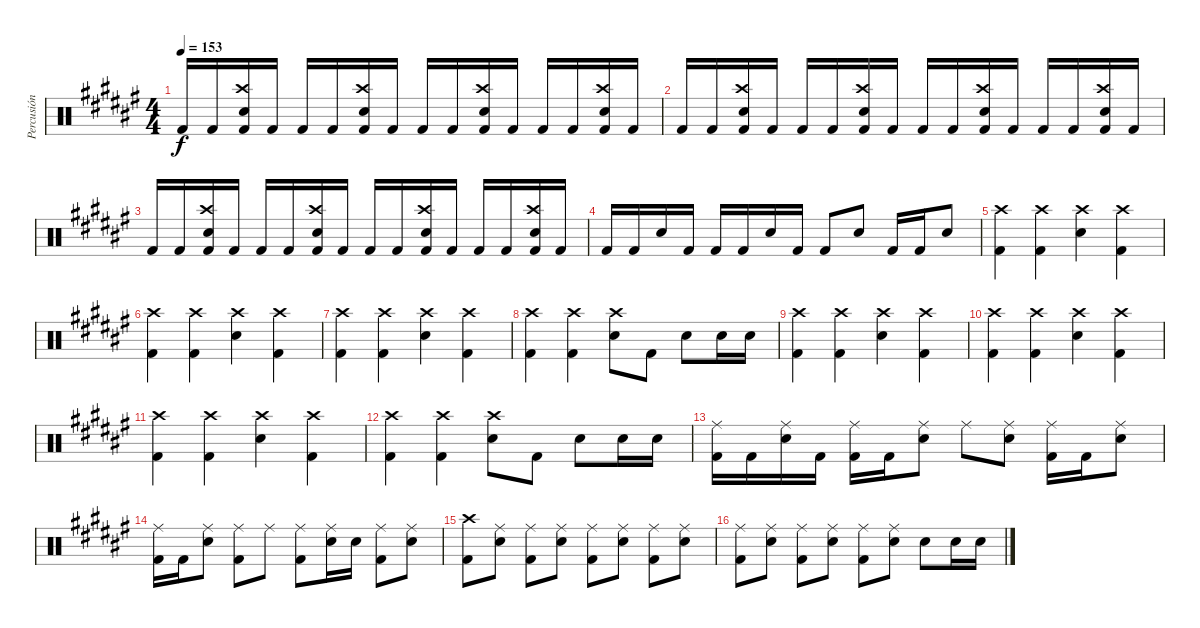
\track ("Percusión" "Percusión") {instrument percussion}
\staff {score}
\articulation defaults
\ts (4 4)
\tempo 153
\clef neutral
\ks d#minor "Kick (hit) 2".16{dy f} "Kick (hit) 2".16
("Crash high (hit)" "Snare (hit) 2" "Kick (hit) 2").16 "Kick (hit) 2".16 "Kick (hit) 2".16 "Kick (hit) 2".16 ("Crash high (hit)" "Snare (hit) 2" "Kick (hit) 2").16 "Kick (hit) 2".16 "Kick (hit) 2".16 "Kick (hit) 2".16 ("Crash high (hit)" "Snare (hit) 2" "Kick (hit) 2").16 "Kick (hit) 2".16 "Kick (hit) 2".16 "Kick (hit) 2".16 ("Crash high (hit)" "Snare (hit) 2" "Kick (hit) 2").16 "Kick (hit) 2".16 |
"Kick (hit) 2".16 "Kick (hit) 2".16 ("Crash high (hit)" "Snare (hit) 2" "Kick (hit) 2").16 "Kick (hit) 2".16 "Kick (hit) 2".16 "Kick (hit) 2".16 ("Crash high (hit)" "Snare (hit) 2" "Kick (hit) 2").16 "Kick (hit) 2".16 "Kick (hit) 2".16 "Kick (hit) 2".16 ("Crash high (hit)" "Snare (hit) 2" "Kick (hit) 2").16 "Kick (hit) 2".16 "Kick (hit) 2".16 "Kick (hit) 2".16 ("Crash high (hit)" "Snare (hit) 2" "Kick (hit) 2").16 "Kick (hit) 2".16 |
"Kick (hit) 2".16 "Kick (hit) 2".16 ("Crash high (hit)" "Snare (hit) 2" "Kick (hit) 2").16 "Kick (hit) 2".16 "Kick (hit) 2".16 "Kick (hit) 2".16 ("Crash high (hit)" "Snare (hit) 2" "Kick (hit) 2").16 "Kick (hit) 2".16 "Kick (hit) 2".16 "Kick (hit) 2".16 ("Crash high (hit)" "Snare (hit) 2" "Kick (hit) 2").16 "Kick (hit) 2".16 "Kick (hit) 2".16 "Kick (hit) 2".16 ("Crash high (hit)" "Snare (hit) 2" "Kick (hit) 2").16 "Kick (hit) 2".16 |
"Kick (hit) 2".16 "Kick (hit) 2".16 "Snare (hit) 2".16 "Kick (hit) 2".16 "Kick (hit) 2".16 "Kick (hit) 2".16 "Snare (hit) 2".16 "Kick (hit) 2".16 "Kick (hit) 2".8 "Snare (hit) 2".8 "Kick (hit) 2".16 "Kick (hit) 2".16 "Snare (hit) 2".8 |
("Crash high (hit)" "Kick (hit) 2").4 ("Crash high (hit)" "Kick (hit) 2").4 ("Crash high (hit)" "Snare (hit) 2").4 ("Crash high (hit)" "Kick (hit) 2").4 |
("Crash high (hit)" "Kick (hit) 2").4 ("Crash high (hit)" "Kick (hit) 2").4 ("Crash high (hit)" "Snare (hit) 2").4 ("Crash high (hit)" "Kick (hit) 2").4 |
("Crash high (hit)" "Kick (hit) 2").4 ("Crash high (hit)" "Kick (hit) 2").4 ("Crash high (hit)" "Snare (hit) 2").4 ("Crash high (hit)" "Kick (hit) 2").4 |
("Crash high (hit)" "Kick (hit) 2").4 ("Crash high (hit)" "Kick (hit) 2").4 ("Crash high (hit)" "Snare (hit) 2").8 "Kick (hit) 2".8 "Snare (hit) 2".8 "Snare (hit) 2".16 "Snare (hit) 2".16 |
("Crash high (hit)" "Kick (hit) 2").4 ("Crash high (hit)" "Kick (hit) 2").4 ("Crash high (hit)" "Snare (hit) 2").4 ("Crash high (hit)" "Kick (hit) 2").4 |
("Crash high (hit)" "Kick (hit) 2").4 ("Crash high (hit)" "Kick (hit) 2").4 ("Crash high (hit)" "Snare (hit) 2").4 ("Crash high (hit)" "Kick (hit) 2").4 |
("Crash high (hit)" "Kick (hit) 2").4 ("Crash high (hit)" "Kick (hit) 2").4 ("Crash high (hit)" "Snare (hit) 2").4 ("Crash high (hit)" "Kick (hit) 2").4 |
("Crash high (hit)" "Kick (hit) 2").4 ("Crash high (hit)" "Kick (hit) 2").4 ("Crash high (hit)" "Snare (hit) 2").8 "Kick (hit) 2".8 "Snare (hit) 2".8 "Snare (hit) 2".16 "Snare (hit) 2".16 |
("Ride (middle)" "Kick (hit) 2").16 "Kick (hit) 2".16 ("Ride (middle)" "Snare (hit) 2").16 "Kick (hit) 2".16 ("Ride (middle)" "Kick (hit) 2").16 "Kick (hit) 2".16 ("Ride (middle)" "Snare (hit) 2").8 "Ride (middle)".8 ("Ride (middle)" "Snare (hit) 2").8 ("Ride (middle)" "Kick (hit) 2").16 "Kick (hit) 2".16 ("Ride (middle)" "Snare (hit) 2").8 |
("Ride (middle)" "Kick (hit) 2").16 "Kick (hit) 2".16 ("Ride (middle)" "Snare (hit) 2").8 ("Ride (middle)" "Kick (hit) 2").8 "Ride (middle)".8 ("Ride (middle)" "Kick (hit) 2").8 ("Ride (middle)" "Snare (hit) 2").16 "Snare (hit) 2".16 ("Ride (middle)" "Kick (hit) 2").8 ("Ride (middle)" "Snare (hit) 2").8 |
("Crash high (hit)" "Kick (hit) 2").8 ("Ride (middle)" "Snare (hit) 2").8 ("Ride (middle)" "Kick (hit) 2").8 ("Ride (middle)" "Snare (hit) 2").8 ("Ride (middle)" "Kick (hit) 2").8 ("Ride (middle)" "Snare (hit) 2").8 ("Ride (middle)" "Kick (hit) 2").8 ("Ride (middle)" "Snare (hit) 2").8 |
("Ride (middle)" "Kick (hit) 2").8 ("Ride (middle)" "Snare (hit) 2").8 ("Ride (middle)" "Kick (hit) 2").8 ("Ride (middle)" "Snare (hit) 2").8 ("Ride (middle)" "Kick (hit) 2").8 ("Ride (middle)" "Snare (hit) 2").8 "Snare (hit) 2".8 "Snare (hit) 2".16 "Snare (hit) 2".16
